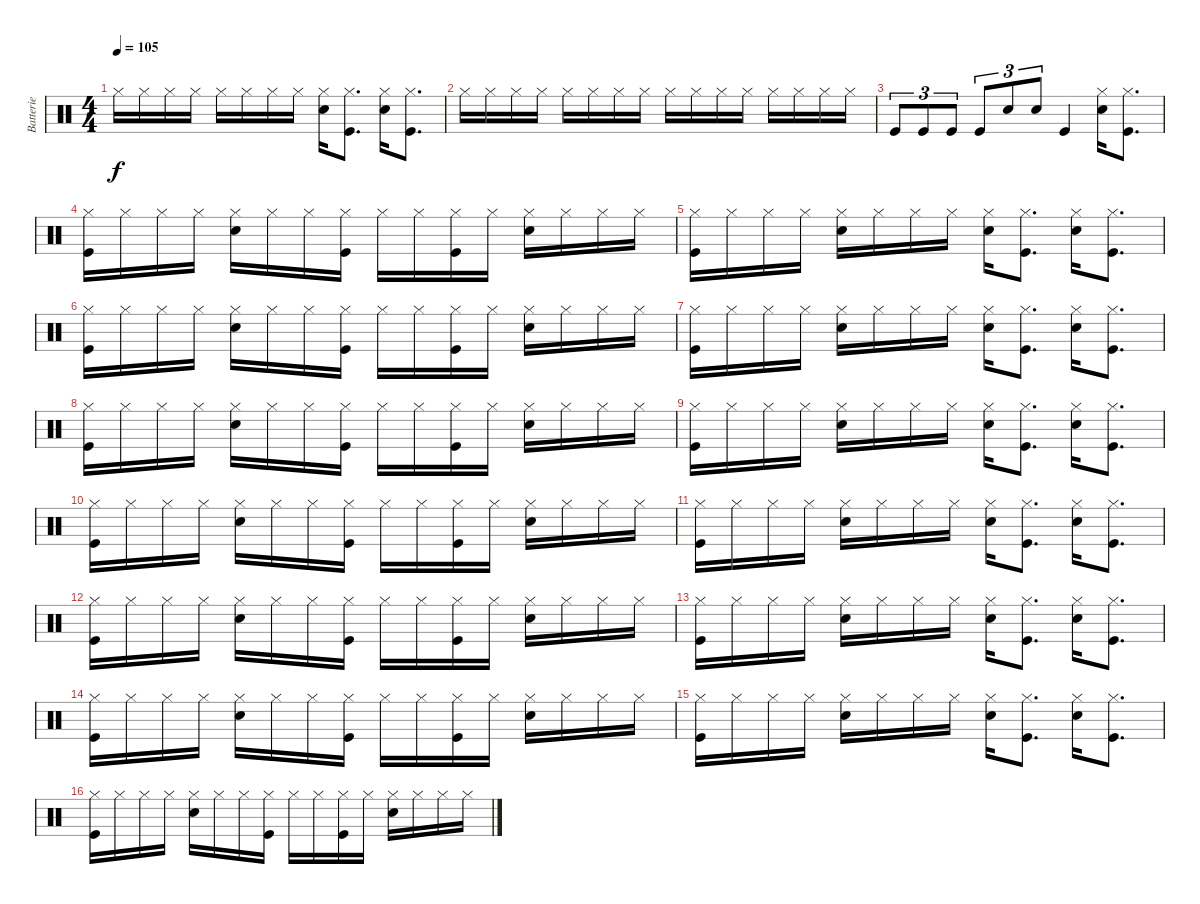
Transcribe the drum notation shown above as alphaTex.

\track ("Batterie" "Batterie") {instrument percussion}
\staff {score}
\articulation defaults
\ts (4 4)
\tempo 105
\clef neutral
\ks c "Hi-Hat (closed)".16{dy f} "Hi-Hat (closed)".16 "Hi-Hat (closed)".16 "Hi-Hat (closed)".16 "Hi-Hat (closed)".16 "Hi-Hat (closed)".16 "Hi-Hat (closed)".16 "Hi-Hat (closed)".16
("Hi-Hat (closed)" "Snare (hit) 2").16 ("Hi-Hat (closed)" "Kick (hit)").8{d} ("Hi-Hat (closed)" "Snare (hit) 2").16 ("Hi-Hat (closed)" "Kick (hit)").8{d} |
"Hi-Hat (closed)".16 "Hi-Hat (closed)".16 "Hi-Hat (closed)".16 "Hi-Hat (closed)".16 "Hi-Hat (closed)".16 "Hi-Hat (closed)".16 "Hi-Hat (closed)".16 "Hi-Hat (closed)".16 "Hi-Hat (closed)".16 "Hi-Hat (closed)".16 "Hi-Hat (closed)".16 "Hi-Hat (closed)".16 "Hi-Hat (closed)".16 "Hi-Hat (closed)".16 "Hi-Hat (closed)".16 "Hi-Hat (closed)".16 |
"Kick (hit)".8{tu (3 2)} "Kick (hit)".8{tu (3 2)} "Kick (hit)".8{tu (3 2)} "Kick (hit)".8{tu (3 2)} "Snare (hit) 2".8{tu (3 2)} "Snare (hit) 2".8{tu (3 2)} "Kick (hit)".4 ("Hi-Hat (closed)" "Snare (hit) 2").16 ("Hi-Hat (closed)" "Kick (hit)").8{d} |
("Hi-Hat (closed)" "Kick (hit)").16 "Hi-Hat (closed)".16 "Hi-Hat (closed)".16 "Hi-Hat (closed)".16 ("Hi-Hat (closed)" "Snare (hit) 2").16 "Hi-Hat (closed)".16 "Hi-Hat (closed)".16 ("Hi-Hat (closed)" "Kick (hit)").16 "Hi-Hat (closed)".16 "Hi-Hat (closed)".16 ("Hi-Hat (closed)" "Kick (hit)").16 "Hi-Hat (closed)".16 ("Hi-Hat (closed)" "Snare (hit) 2").16 "Hi-Hat (closed)".16 "Hi-Hat (closed)".16 "Hi-Hat (closed)".16 |
("Hi-Hat (closed)" "Kick (hit)").16 "Hi-Hat (closed)".16 "Hi-Hat (closed)".16 "Hi-Hat (closed)".16 ("Hi-Hat (closed)" "Snare (hit) 2").16 "Hi-Hat (closed)".16 "Hi-Hat (closed)".16 "Hi-Hat (closed)".16 ("Hi-Hat (closed)" "Snare (hit) 2").16 ("Hi-Hat (closed)" "Kick (hit)").8{d} ("Hi-Hat (closed)" "Snare (hit) 2").16 ("Hi-Hat (closed)" "Kick (hit)").8{d} |
("Hi-Hat (closed)" "Kick (hit)").16 "Hi-Hat (closed)".16 "Hi-Hat (closed)".16 "Hi-Hat (closed)".16 ("Hi-Hat (closed)" "Snare (hit) 2").16 "Hi-Hat (closed)".16 "Hi-Hat (closed)".16 ("Hi-Hat (closed)" "Kick (hit)").16 "Hi-Hat (closed)".16 "Hi-Hat (closed)".16 ("Hi-Hat (closed)" "Kick (hit)").16 "Hi-Hat (closed)".16 ("Hi-Hat (closed)" "Snare (hit) 2").16 "Hi-Hat (closed)".16 "Hi-Hat (closed)".16 "Hi-Hat (closed)".16 |
("Hi-Hat (closed)" "Kick (hit)").16 "Hi-Hat (closed)".16 "Hi-Hat (closed)".16 "Hi-Hat (closed)".16 ("Hi-Hat (closed)" "Snare (hit) 2").16 "Hi-Hat (closed)".16 "Hi-Hat (closed)".16 "Hi-Hat (closed)".16 ("Hi-Hat (closed)" "Snare (hit) 2").16 ("Hi-Hat (closed)" "Kick (hit)").8{d} ("Hi-Hat (closed)" "Snare (hit) 2").16 ("Hi-Hat (closed)" "Kick (hit)").8{d} |
("Hi-Hat (closed)" "Kick (hit)").16 "Hi-Hat (closed)".16 "Hi-Hat (closed)".16 "Hi-Hat (closed)".16 ("Hi-Hat (closed)" "Snare (hit) 2").16 "Hi-Hat (closed)".16 "Hi-Hat (closed)".16 ("Hi-Hat (closed)" "Kick (hit)").16 "Hi-Hat (closed)".16 "Hi-Hat (closed)".16 ("Hi-Hat (closed)" "Kick (hit)").16 "Hi-Hat (closed)".16 ("Hi-Hat (closed)" "Snare (hit) 2").16 "Hi-Hat (closed)".16 "Hi-Hat (closed)".16 "Hi-Hat (closed)".16 |
("Hi-Hat (closed)" "Kick (hit)").16 "Hi-Hat (closed)".16 "Hi-Hat (closed)".16 "Hi-Hat (closed)".16 ("Hi-Hat (closed)" "Snare (hit) 2").16 "Hi-Hat (closed)".16 "Hi-Hat (closed)".16 "Hi-Hat (closed)".16 ("Hi-Hat (closed)" "Snare (hit) 2").16 ("Hi-Hat (closed)" "Kick (hit)").8{d} ("Hi-Hat (closed)" "Snare (hit) 2").16 ("Hi-Hat (closed)" "Kick (hit)").8{d} |
("Hi-Hat (closed)" "Kick (hit)").16 "Hi-Hat (closed)".16 "Hi-Hat (closed)".16 "Hi-Hat (closed)".16 ("Hi-Hat (closed)" "Snare (hit) 2").16 "Hi-Hat (closed)".16 "Hi-Hat (closed)".16 ("Hi-Hat (closed)" "Kick (hit)").16 "Hi-Hat (closed)".16 "Hi-Hat (closed)".16 ("Hi-Hat (closed)" "Kick (hit)").16 "Hi-Hat (closed)".16 ("Hi-Hat (closed)" "Snare (hit) 2").16 "Hi-Hat (closed)".16 "Hi-Hat (closed)".16 "Hi-Hat (closed)".16 |
("Hi-Hat (closed)" "Kick (hit)").16 "Hi-Hat (closed)".16 "Hi-Hat (closed)".16 "Hi-Hat (closed)".16 ("Hi-Hat (closed)" "Snare (hit) 2").16 "Hi-Hat (closed)".16 "Hi-Hat (closed)".16 "Hi-Hat (closed)".16 ("Hi-Hat (closed)" "Snare (hit) 2").16 ("Hi-Hat (closed)" "Kick (hit)").8{d} ("Hi-Hat (closed)" "Snare (hit) 2").16 ("Hi-Hat (closed)" "Kick (hit)").8{d} |
("Hi-Hat (closed)" "Kick (hit)").16 "Hi-Hat (closed)".16 "Hi-Hat (closed)".16 "Hi-Hat (closed)".16 ("Hi-Hat (closed)" "Snare (hit) 2").16 "Hi-Hat (closed)".16 "Hi-Hat (closed)".16 ("Hi-Hat (closed)" "Kick (hit)").16 "Hi-Hat (closed)".16 "Hi-Hat (closed)".16 ("Hi-Hat (closed)" "Kick (hit)").16 "Hi-Hat (closed)".16 ("Hi-Hat (closed)" "Snare (hit) 2").16 "Hi-Hat (closed)".16 "Hi-Hat (closed)".16 "Hi-Hat (closed)".16 |
("Hi-Hat (closed)" "Kick (hit)").16 "Hi-Hat (closed)".16 "Hi-Hat (closed)".16 "Hi-Hat (closed)".16 ("Hi-Hat (closed)" "Snare (hit) 2").16 "Hi-Hat (closed)".16 "Hi-Hat (closed)".16 "Hi-Hat (closed)".16 ("Hi-Hat (closed)" "Snare (hit) 2").16 ("Hi-Hat (closed)" "Kick (hit)").8{d} ("Hi-Hat (closed)" "Snare (hit) 2").16 ("Hi-Hat (closed)" "Kick (hit)").8{d} |
("Hi-Hat (closed)" "Kick (hit)").16 "Hi-Hat (closed)".16 "Hi-Hat (closed)".16 "Hi-Hat (closed)".16 ("Hi-Hat (closed)" "Snare (hit) 2").16 "Hi-Hat (closed)".16 "Hi-Hat (closed)".16 ("Hi-Hat (closed)" "Kick (hit)").16 "Hi-Hat (closed)".16 "Hi-Hat (closed)".16 ("Hi-Hat (closed)" "Kick (hit)").16 "Hi-Hat (closed)".16 ("Hi-Hat (closed)" "Snare (hit) 2").16 "Hi-Hat (closed)".16 "Hi-Hat (closed)".16 "Hi-Hat (closed)".16 |
("Hi-Hat (closed)" "Kick (hit)").16 "Hi-Hat (closed)".16 "Hi-Hat (closed)".16 "Hi-Hat (closed)".16 ("Hi-Hat (closed)" "Snare (hit) 2").16 "Hi-Hat (closed)".16 "Hi-Hat (closed)".16 "Hi-Hat (closed)".16 ("Hi-Hat (closed)" "Snare (hit) 2").16 ("Hi-Hat (closed)" "Kick (hit)").8{d} ("Hi-Hat (closed)" "Snare (hit) 2").16 ("Hi-Hat (closed)" "Kick (hit)").8{d} |
("Hi-Hat (closed)" "Kick (hit)").16 "Hi-Hat (closed)".16 "Hi-Hat (closed)".16 "Hi-Hat (closed)".16 ("Hi-Hat (closed)" "Snare (hit) 2").16 "Hi-Hat (closed)".16 "Hi-Hat (closed)".16 ("Hi-Hat (closed)" "Kick (hit)").16 "Hi-Hat (closed)".16 "Hi-Hat (closed)".16 ("Hi-Hat (closed)" "Kick (hit)").16 "Hi-Hat (closed)".16 ("Hi-Hat (closed)" "Snare (hit) 2").16 "Hi-Hat (closed)".16 "Hi-Hat (closed)".16 "Hi-Hat (closed)".16
